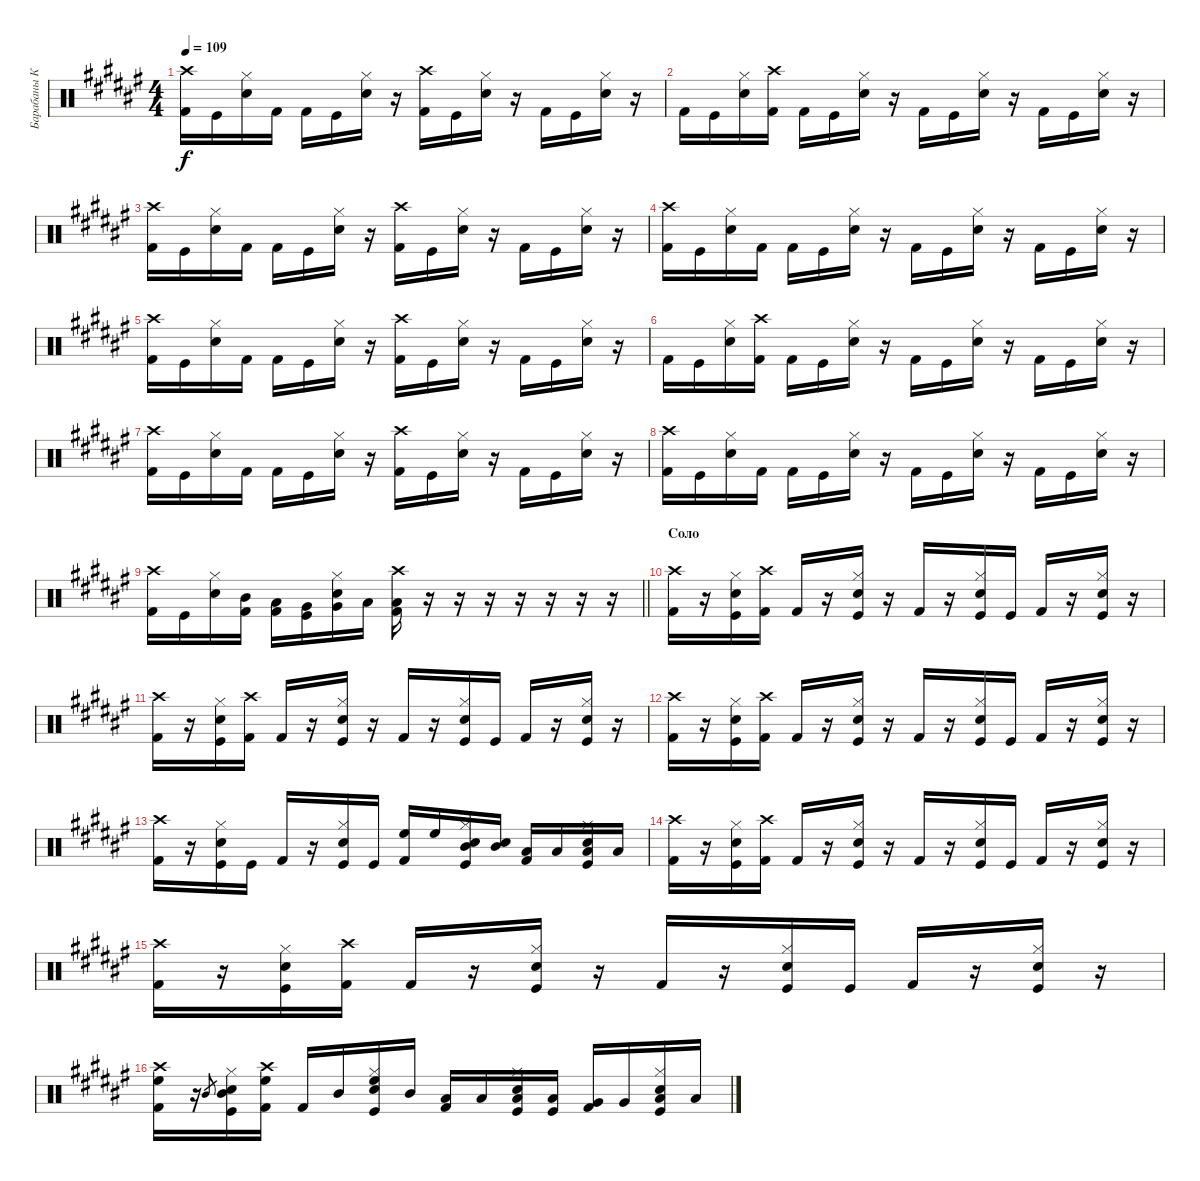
\track ("Барабаны Кольян" "Барабаны К") {instrument percussion}
\staff {score}
\articulation defaults
\ts (4 4)
\tempo 109
\clef neutral
\ks f#
("Crash high (hit)" "Kick (hit) 2").16{dy f} "Kick (hit)".16 ("Hi-Hat (closed)" "Snare (hit) 2").16 "Kick (hit) 2".16 "Kick (hit) 2".16 "Kick (hit)".16 ("Hi-Hat (closed)" "Snare (hit) 2").16 r.16 ("Crash high (hit)" "Kick (hit) 2").16 "Kick (hit)".16 ("Hi-Hat (closed)" "Snare (hit) 2").16 r.16 "Kick (hit) 2".16 "Kick (hit)".16 ("Hi-Hat (closed)" "Snare (hit) 2").16 r.16 |
"Kick (hit) 2".16 "Kick (hit)".16 ("Hi-Hat (closed)" "Snare (hit) 2").16 ("Crash high (hit)" "Kick (hit) 2").16 "Kick (hit) 2".16 "Kick (hit)".16 ("Hi-Hat (closed)" "Snare (hit) 2").16 r.16 "Kick (hit) 2".16 "Kick (hit)".16 ("Hi-Hat (closed)" "Snare (hit) 2").16 r.16 "Kick (hit) 2".16 "Kick (hit)".16 ("Hi-Hat (closed)" "Snare (hit) 2").16 r.16 |
("Crash high (hit)" "Kick (hit) 2").16 "Kick (hit)".16 ("Hi-Hat (closed)" "Snare (hit) 2").16 "Kick (hit) 2".16 "Kick (hit) 2".16 "Kick (hit)".16 ("Hi-Hat (closed)" "Snare (hit) 2").16 r.16 ("Crash high (hit)" "Kick (hit) 2").16 "Kick (hit)".16 ("Hi-Hat (closed)" "Snare (hit) 2").16 r.16 "Kick (hit) 2".16 "Kick (hit)".16 ("Hi-Hat (closed)" "Snare (hit) 2").16 r.16 |
("Crash high (hit)" "Kick (hit) 2").16 "Kick (hit)".16 ("Hi-Hat (closed)" "Snare (hit) 2").16 "Kick (hit) 2".16 "Kick (hit) 2".16 "Kick (hit)".16 ("Hi-Hat (closed)" "Snare (hit) 2").16 r.16 "Kick (hit) 2".16 "Kick (hit)".16 ("Hi-Hat (closed)" "Snare (hit) 2").16 r.16 "Kick (hit) 2".16 "Kick (hit)".16 ("Hi-Hat (closed)" "Snare (hit) 2").16 r.16 |
("Crash high (hit)" "Kick (hit) 2").16 "Kick (hit)".16 ("Hi-Hat (closed)" "Snare (hit) 2").16 "Kick (hit) 2".16 "Kick (hit) 2".16 "Kick (hit)".16 ("Hi-Hat (closed)" "Snare (hit) 2").16 r.16 ("Crash high (hit)" "Kick (hit) 2").16 "Kick (hit)".16 ("Hi-Hat (closed)" "Snare (hit) 2").16 r.16 "Kick (hit) 2".16 "Kick (hit)".16 ("Hi-Hat (closed)" "Snare (hit) 2").16 r.16 |
"Kick (hit) 2".16 "Kick (hit)".16 ("Hi-Hat (closed)" "Snare (hit) 2").16 ("Crash high (hit)" "Kick (hit) 2").16 "Kick (hit) 2".16 "Kick (hit)".16 ("Hi-Hat (closed)" "Snare (hit) 2").16 r.16 "Kick (hit) 2".16 "Kick (hit)".16 ("Hi-Hat (closed)" "Snare (hit) 2").16 r.16 "Kick (hit) 2".16 "Kick (hit)".16 ("Hi-Hat (closed)" "Snare (hit) 2").16 r.16 |
("Crash high (hit)" "Kick (hit) 2").16 "Kick (hit)".16 ("Hi-Hat (closed)" "Snare (hit) 2").16 "Kick (hit) 2".16 "Kick (hit) 2".16 "Kick (hit)".16 ("Hi-Hat (closed)" "Snare (hit) 2").16 r.16 ("Crash high (hit)" "Kick (hit) 2").16 "Kick (hit)".16 ("Hi-Hat (closed)" "Snare (hit) 2").16 r.16 "Kick (hit) 2".16 "Kick (hit)".16 ("Hi-Hat (closed)" "Snare (hit) 2").16 r.16 |
("Crash high (hit)" "Kick (hit) 2").16 "Kick (hit)".16 ("Hi-Hat (closed)" "Snare (hit) 2").16 "Kick (hit) 2".16 "Kick (hit) 2".16 "Kick (hit)".16 ("Hi-Hat (closed)" "Snare (hit) 2").16 r.16 "Kick (hit) 2".16 "Kick (hit)".16 ("Hi-Hat (closed)" "Snare (hit) 2").16 r.16 "Kick (hit) 2".16 "Kick (hit)".16 ("Hi-Hat (closed)" "Snare (hit) 2").16 r.16 |
\barLineRight lightlight
("Crash high (hit)" "Kick (hit) 2").16 "Kick (hit)".16 ("Hi-Hat (closed)" "Snare (hit) 2").16 ("Mid Tom (hit)" "Kick (hit) 2").16 ("Low Tom (hit)" "Kick (hit) 2").16 ("Very Low Tom (hit)" "Kick (hit)").16 ("Hi-Hat (closed)" "Snare (hit) 2" "Very Low Tom (hit)").16 "Low Floor Tom (hit)".16 ("Crash high (hit)" "Low Floor Tom (hit)" "Kick (hit) 2").16 r.16 r.16 r.16 r.16 r.16 r.16 r.16 |
\section ("" "Соло")
("Crash high (hit)" "Kick (hit) 2").16 r.16 ("Hi-Hat (closed)" "Snare (hit) 2" "Kick (hit)").16 ("Crash high (hit)" "Kick (hit) 2").16 "Kick (hit) 2".16 r.16 ("Hi-Hat (closed)" "Snare (hit) 2" "Kick (hit)").16 r.16 "Kick (hit) 2".16 r.16 ("Hi-Hat (closed)" "Snare (hit) 2" "Kick (hit)").16 "Kick (hit)".16 "Kick (hit) 2".16 r.16 ("Hi-Hat (closed)" "Snare (hit) 2" "Kick (hit)").16 r.16 |
("Crash high (hit)" "Kick (hit) 2").16 r.16 ("Hi-Hat (closed)" "Snare (hit) 2" "Kick (hit)").16 ("Crash high (hit)" "Kick (hit) 2").16 "Kick (hit) 2".16 r.16 ("Hi-Hat (closed)" "Snare (hit) 2" "Kick (hit)").16 r.16 "Kick (hit) 2".16 r.16 ("Hi-Hat (closed)" "Snare (hit) 2" "Kick (hit)").16 "Kick (hit)".16 "Kick (hit) 2".16 r.16 ("Hi-Hat (closed)" "Snare (hit) 2" "Kick (hit)").16 r.16 |
("Crash high (hit)" "Kick (hit) 2").16 r.16 ("Hi-Hat (closed)" "Snare (hit) 2" "Kick (hit)").16 ("Crash high (hit)" "Kick (hit) 2").16 "Kick (hit) 2".16 r.16 ("Hi-Hat (closed)" "Snare (hit) 2" "Kick (hit)").16 r.16 "Kick (hit) 2".16 r.16 ("Hi-Hat (closed)" "Snare (hit) 2" "Kick (hit)").16 "Kick (hit)".16 "Kick (hit) 2".16 r.16 ("Hi-Hat (closed)" "Snare (hit) 2" "Kick (hit)").16 r.16 |
("Crash high (hit)" "Kick (hit) 2").16 r.16 ("Hi-Hat (closed)" "Snare (hit) 2" "Kick (hit)").16 "Kick (hit)".16 "Kick (hit) 2".16 r.16 ("Hi-Hat (closed)" "Snare (hit) 2" "Kick (hit)").16 "Kick (hit)".16 ("High Floor Tom (hit)" "Kick (hit) 2").16 "High Floor Tom (hit)".16 ("Hi-Hat (closed)" "Snare (hit) 2" "Mid Tom (hit)" "Kick (hit)").16 ("Snare (hit) 2" "Mid Tom (hit)").16 ("Low Tom (hit)" "Kick (hit) 2").16 "Low Tom (hit)".16 ("Hi-Hat (closed)" "Snare (hit) 2" "Low Floor Tom (hit)" "Kick (hit)").16 "Low Floor Tom (hit)".16 |
("Crash high (hit)" "Kick (hit) 2").16 r.16 ("Hi-Hat (closed)" "Snare (hit) 2" "Kick (hit)").16 ("Crash high (hit)" "Kick (hit) 2").16 "Kick (hit) 2".16 r.16 ("Hi-Hat (closed)" "Snare (hit) 2" "Kick (hit)").16 r.16 "Kick (hit) 2".16 r.16 ("Hi-Hat (closed)" "Snare (hit) 2" "Kick (hit)").16 "Kick (hit)".16 "Kick (hit) 2".16 r.16 ("Hi-Hat (closed)" "Snare (hit) 2" "Kick (hit)").16 r.16 |
("Crash high (hit)" "Kick (hit) 2").16 r.16 ("Hi-Hat (closed)" "Snare (hit) 2" "Kick (hit)").16 ("Crash high (hit)" "Kick (hit) 2").16 "Kick (hit) 2".16 r.16 ("Hi-Hat (closed)" "Snare (hit) 2" "Kick (hit)").16 r.16 "Kick (hit) 2".16 r.16 ("Hi-Hat (closed)" "Snare (hit) 2" "Kick (hit)").16 "Kick (hit)".16 "Kick (hit) 2".16 r.16 ("Hi-Hat (closed)" "Snare (hit) 2" "Kick (hit)").16 r.16 |
("Crash high (hit)" "High Floor Tom (hit)" "Kick (hit) 2").16 r.16 "Mid Tom (hit)".8{gr} ("Hi-Hat (closed)" "Snare (hit) 2" "Mid Tom (hit)" "Kick (hit)").16 ("Crash high (hit)" "High Floor Tom (hit)" "Kick (hit) 2").16 "Kick (hit) 2".16 "Mid Tom (hit)".16 ("Hi-Hat (closed)" "Snare (hit) 2" "High Floor Tom (hit)" "Kick (hit)").16 "Mid Tom (hit)".16 ("Low Tom (hit)" "Kick (hit) 2").16 "Low Tom (hit)".16 ("Hi-Hat (closed)" "Snare (hit) 2" "Low Tom (hit)" "Kick (hit)").16 ("Low Tom (hit)" "Kick (hit)").16 ("Very Low Tom (hit)" "Kick (hit) 2").16 "Very Low Tom (hit)".16 ("Hi-Hat (closed)" "Snare (hit) 2" "Low Floor Tom (hit)" "Kick (hit)").16 "Low Floor Tom (hit)".16
